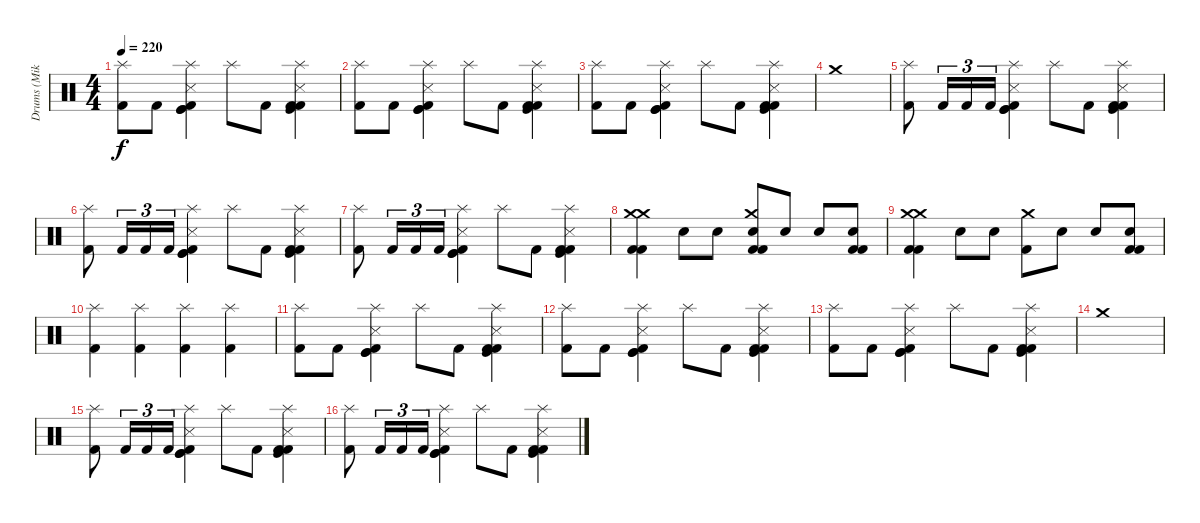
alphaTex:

\track ("Drums (Mike Justian)" "Drums (Mik") {instrument percussion}
\staff {score}
\articulation defaults
\ts (4 4)
\tempo 220
\clef neutral
\ks c
("Splash (hit)" "Kick (hit) 2").8{dy f} "Kick (hit) 2".8 ("Splash (hit)" "Snare (side stick) 3" "Kick (hit) 2" "Kick (hit)" "Kick (hit)").4 "Splash (hit)".8 "Kick (hit) 2".8 ("Splash (hit)" "Snare (side stick) 3" "Kick (hit)" "Kick (hit) 2" "Kick (hit) 2").4 |
("Splash (hit)" "Kick (hit) 2").8 "Kick (hit) 2".8 ("Splash (hit)" "Snare (side stick) 3" "Kick (hit) 2" "Kick (hit)" "Kick (hit)").4 "Splash (hit)".8 "Kick (hit) 2".8 ("Splash (hit)" "Snare (side stick) 3" "Kick (hit)" "Kick (hit) 2" "Kick (hit) 2").4 |
("Splash (hit)" "Kick (hit) 2").8 "Kick (hit) 2".8 ("Splash (hit)" "Snare (side stick) 3" "Kick (hit) 2" "Kick (hit)" "Kick (hit)").4 "Splash (hit)".8 "Kick (hit) 2".8 ("Splash (hit)" "Snare (side stick) 3" "Kick (hit)" "Kick (hit) 2" "Kick (hit) 2").4 |
"Crash medium (hit)".1 |
("Splash (hit)" "Kick (hit) 2").8 "Kick (hit) 2".16{tu (3 2)} "Kick (hit) 2".16{tu (3 2)} "Kick (hit) 2".16{tu (3 2)} ("Splash (hit)" "Snare (side stick) 3" "Kick (hit) 2" "Kick (hit)" "Kick (hit)").4 "Splash (hit)".8 "Kick (hit) 2".8 ("Splash (hit)" "Snare (side stick) 3" "Kick (hit)" "Kick (hit) 2" "Kick (hit) 2").4 |
("Splash (hit)" "Kick (hit) 2").8 "Kick (hit) 2".16{tu (3 2)} "Kick (hit) 2".16{tu (3 2)} "Kick (hit) 2".16{tu (3 2)} ("Splash (hit)" "Snare (side stick) 3" "Kick (hit) 2" "Kick (hit)" "Kick (hit)").4 "Splash (hit)".8 "Kick (hit) 2".8 ("Splash (hit)" "Snare (side stick) 3" "Kick (hit)" "Kick (hit) 2" "Kick (hit) 2").4 |
("Splash (hit)" "Kick (hit) 2").8 "Kick (hit) 2".16{tu (3 2)} "Kick (hit) 2".16{tu (3 2)} "Kick (hit) 2".16{tu (3 2)} ("Splash (hit)" "Snare (side stick) 3" "Kick (hit) 2" "Kick (hit)" "Kick (hit)").4 "Splash (hit)".8 "Kick (hit) 2".8 ("Splash (hit)" "Snare (side stick) 3" "Kick (hit)" "Kick (hit) 2" "Kick (hit) 2").4 |
("Crash medium (hit)" "Kick (hit) 2" "Crash medium (hit)" "Kick (hit) 2").4 "Electric Snare (hit)".8 "Electric Snare (hit)".8 ("Crash medium (hit)" "Kick (hit) 2" "Electric Snare (hit)" "Kick (hit) 2").8 "Electric Snare (hit)".8 "Electric Snare (hit)".8 ("Electric Snare (hit)" "Kick (hit) 2" "Kick (hit) 2").8 |
("Crash medium (hit)" "Kick (hit) 2" "Crash medium (hit)" "Kick (hit) 2").4 "Electric Snare (hit)".8 "Electric Snare (hit)".8 ("Crash medium (hit)" "Kick (hit) 2").8 "Electric Snare (hit)".8 "Electric Snare (hit)".8 ("Electric Snare (hit)" "Kick (hit) 2" "Kick (hit) 2").8 |
("Splash (hit)" "Kick (hit) 2").4 ("Splash (hit)" "Kick (hit) 2").4 ("Splash (hit)" "Kick (hit) 2").4 ("Splash (hit)" "Kick (hit) 2").4 |
("Splash (hit)" "Kick (hit) 2").8 "Kick (hit) 2".8 ("Splash (hit)" "Snare (side stick) 3" "Kick (hit) 2" "Kick (hit)" "Kick (hit)").4 "Splash (hit)".8 "Kick (hit) 2".8 ("Splash (hit)" "Snare (side stick) 3" "Kick (hit)" "Kick (hit) 2" "Kick (hit) 2").4 |
("Splash (hit)" "Kick (hit) 2").8 "Kick (hit) 2".8 ("Splash (hit)" "Snare (side stick) 3" "Kick (hit) 2" "Kick (hit)" "Kick (hit)").4 "Splash (hit)".8 "Kick (hit) 2".8 ("Splash (hit)" "Snare (side stick) 3" "Kick (hit)" "Kick (hit) 2" "Kick (hit) 2").4 |
("Splash (hit)" "Kick (hit) 2").8 "Kick (hit) 2".8 ("Splash (hit)" "Snare (side stick) 3" "Kick (hit) 2" "Kick (hit)" "Kick (hit)").4 "Splash (hit)".8 "Kick (hit) 2".8 ("Splash (hit)" "Snare (side stick) 3" "Kick (hit)" "Kick (hit) 2" "Kick (hit) 2").4 |
"Crash medium (hit)".1 |
("Splash (hit)" "Kick (hit) 2").8 "Kick (hit) 2".16{tu (3 2)} "Kick (hit) 2".16{tu (3 2)} "Kick (hit) 2".16{tu (3 2)} ("Splash (hit)" "Snare (side stick) 3" "Kick (hit) 2" "Kick (hit)" "Kick (hit)").4 "Splash (hit)".8 "Kick (hit) 2".8 ("Splash (hit)" "Snare (side stick) 3" "Kick (hit)" "Kick (hit) 2" "Kick (hit) 2").4 |
("Splash (hit)" "Kick (hit) 2").8 "Kick (hit) 2".16{tu (3 2)} "Kick (hit) 2".16{tu (3 2)} "Kick (hit) 2".16{tu (3 2)} ("Splash (hit)" "Snare (side stick) 3" "Kick (hit) 2" "Kick (hit)" "Kick (hit)").4 "Splash (hit)".8 "Kick (hit) 2".8 ("Splash (hit)" "Snare (side stick) 3" "Kick (hit)" "Kick (hit) 2" "Kick (hit) 2").4
